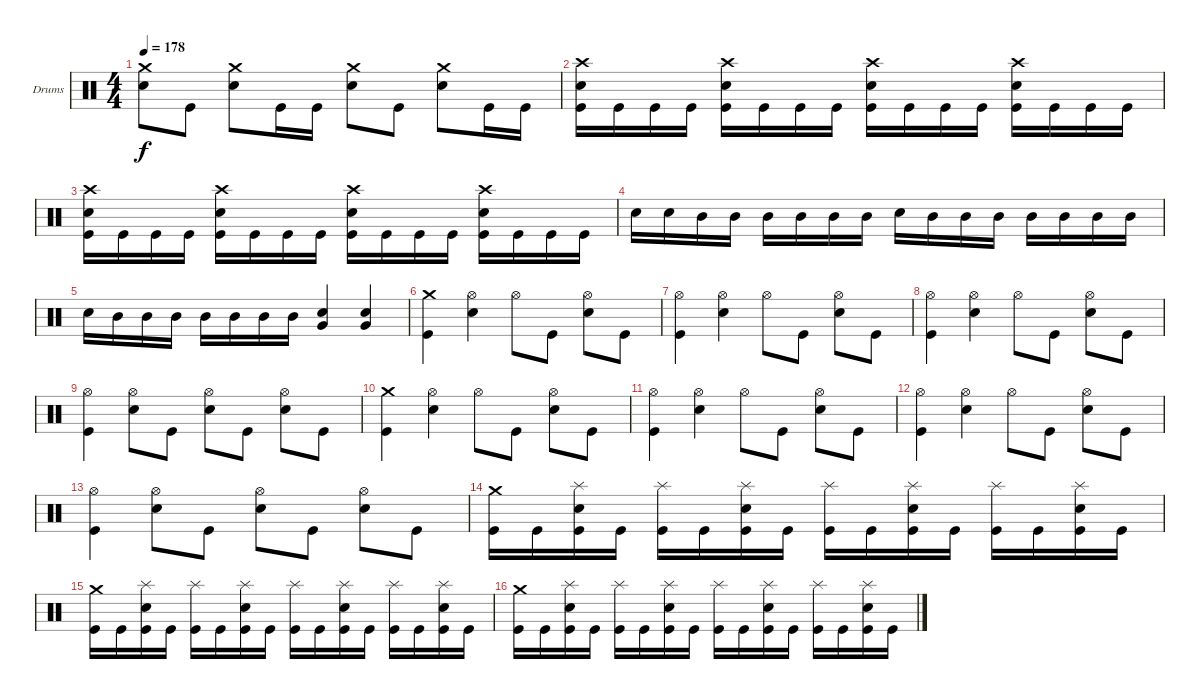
\bracketExtendMode groupsimilarinstruments
\firstSystemTrackNameOrientation horizontal
\otherSystemsTrackNameOrientation horizontal
\track ("Drumkit" "Drums") {instrument percussion}
\staff {score}
\articulation defaults
\ts (4 4)
\tempo 178
\clef neutral
\ks c
("Crash medium (hit)" "Snare (hit) 2").8{dy f} "Kick (hit)".8 ("Crash medium (hit)" "Snare (hit) 2").8 "Kick (hit)".16 "Kick (hit)".16 ("Crash medium (hit)" "Snare (hit) 2").8 "Kick (hit)".8 ("Crash medium (hit)" "Snare (hit) 2").8 "Kick (hit)".16 "Kick (hit)".16 |
("Crash high (hit)" "Snare (hit) 2" "Kick (hit)").16 "Kick (hit)".16 "Kick (hit)".16 "Kick (hit)".16 ("Crash high (hit)" "Snare (hit) 2" "Kick (hit)").16 "Kick (hit)".16 "Kick (hit)".16 "Kick (hit)".16 ("Crash high (hit)" "Snare (hit) 2" "Kick (hit)").16 "Kick (hit)".16 "Kick (hit)".16 "Kick (hit)".16 ("Crash high (hit)" "Snare (hit) 2" "Kick (hit)").16 "Kick (hit)".16 "Kick (hit)".16 "Kick (hit)".16 |
("Crash high (hit)" "Snare (hit) 2" "Kick (hit)").16 "Kick (hit)".16 "Kick (hit)".16 "Kick (hit)".16 ("Crash high (hit)" "Snare (hit) 2" "Kick (hit)").16 "Kick (hit)".16 "Kick (hit)".16 "Kick (hit)".16 ("Crash high (hit)" "Snare (hit) 2" "Kick (hit)").16 "Kick (hit)".16 "Kick (hit)".16 "Kick (hit)".16 ("Crash high (hit)" "Snare (hit) 2" "Kick (hit)").16 "Kick (hit)".16 "Kick (hit)".16 "Kick (hit)".16 |
"Snare (hit) 2".16 "Snare (hit) 2".16 "Mid Tom (hit)".16 "Mid Tom (hit)".16 "Mid Tom (hit)".16 "Mid Tom (hit)".16 "Mid Tom (hit)".16 "Mid Tom (hit)".16 "Snare (hit) 2".16 "Mid Tom (hit)".16 "Mid Tom (hit)".16 "Mid Tom (hit)".16 "Mid Tom (hit)".16 "Mid Tom (hit)".16 "Mid Tom (hit)".16 "Mid Tom (hit)".16 |
"Snare (hit) 2".16 "Mid Tom (hit)".16 "Mid Tom (hit)".16 "Mid Tom (hit)".16 "Mid Tom (hit)".16 "Mid Tom (hit)".16 "Mid Tom (hit)".16 "Mid Tom (hit)".16 ("Snare (hit) 2" "Very Low Tom (hit)").4 ("Snare (hit) 2" "Very Low Tom (hit)").4 |
("Crash medium (hit)" "Kick (hit)").4 ("Hi-Hat (open)" "Snare (hit) 2").4 "Hi-Hat (open)".8 "Kick (hit)".8 ("Hi-Hat (open)" "Snare (hit) 2").8 "Kick (hit)".8 |
("Hi-Hat (open)" "Kick (hit)").4 ("Hi-Hat (open)" "Snare (hit) 2").4 "Hi-Hat (open)".8 "Kick (hit)".8 ("Hi-Hat (open)" "Snare (hit) 2").8 "Kick (hit)".8 |
("Hi-Hat (open)" "Kick (hit)").4 ("Hi-Hat (open)" "Snare (hit) 2").4 "Hi-Hat (open)".8 "Kick (hit)".8 ("Hi-Hat (open)" "Snare (hit) 2").8 "Kick (hit)".8 |
("Hi-Hat (open)" "Kick (hit)").4 ("Hi-Hat (open)" "Snare (hit) 2").8 "Kick (hit)".8 ("Hi-Hat (open)" "Snare (hit) 2").8 "Kick (hit)".8 ("Hi-Hat (open)" "Snare (hit) 2").8 "Kick (hit)".8 |
("Crash medium (hit)" "Kick (hit)").4 ("Hi-Hat (open)" "Snare (hit) 2").4 "Hi-Hat (open)".8 "Kick (hit)".8 ("Hi-Hat (open)" "Snare (hit) 2").8 "Kick (hit)".8 |
("Hi-Hat (open)" "Kick (hit)").4 ("Hi-Hat (open)" "Snare (hit) 2").4 "Hi-Hat (open)".8 "Kick (hit)".8 ("Hi-Hat (open)" "Snare (hit) 2").8 "Kick (hit)".8 |
("Hi-Hat (open)" "Kick (hit)").4 ("Hi-Hat (open)" "Snare (hit) 2").4 "Hi-Hat (open)".8 "Kick (hit)".8 ("Hi-Hat (open)" "Snare (hit) 2").8 "Kick (hit)".8 |
("Hi-Hat (open)" "Kick (hit)").4 ("Hi-Hat (open)" "Snare (hit) 2").8 "Kick (hit)".8 ("Hi-Hat (open)" "Snare (hit) 2").8 "Kick (hit)".8 ("Hi-Hat (open)" "Snare (hit) 2").8 "Kick (hit)".8 |
("Crash medium (hit)" "Kick (hit)").16 "Kick (hit)".16 ("Splash (hit)" "Snare (hit) 2" "Kick (hit)").16 "Kick (hit)".16 ("Splash (hit)" "Kick (hit)").16 "Kick (hit)".16 ("Splash (hit)" "Snare (hit) 2" "Kick (hit)").16 "Kick (hit)".16 ("Splash (hit)" "Kick (hit)").16 "Kick (hit)".16 ("Splash (hit)" "Snare (hit) 2" "Kick (hit)").16 "Kick (hit)".16 ("Splash (hit)" "Kick (hit)").16 "Kick (hit)".16 ("Splash (hit)" "Snare (hit) 2" "Kick (hit)").16 "Kick (hit)".16 |
("Crash medium (hit)" "Kick (hit)").16 "Kick (hit)".16 ("Splash (hit)" "Snare (hit) 2" "Kick (hit)").16 "Kick (hit)".16 ("Splash (hit)" "Kick (hit)").16 "Kick (hit)".16 ("Splash (hit)" "Snare (hit) 2" "Kick (hit)").16 "Kick (hit)".16 ("Splash (hit)" "Kick (hit)").16 "Kick (hit)".16 ("Splash (hit)" "Snare (hit) 2" "Kick (hit)").16 "Kick (hit)".16 ("Splash (hit)" "Kick (hit)").16 "Kick (hit)".16 ("Splash (hit)" "Snare (hit) 2" "Kick (hit)").16 "Kick (hit)".16 |
("Crash medium (hit)" "Kick (hit)").16 "Kick (hit)".16 ("Splash (hit)" "Snare (hit) 2" "Kick (hit)").16 "Kick (hit)".16 ("Splash (hit)" "Kick (hit)").16 "Kick (hit)".16 ("Splash (hit)" "Snare (hit) 2" "Kick (hit)").16 "Kick (hit)".16 ("Splash (hit)" "Kick (hit)").16 "Kick (hit)".16 ("Splash (hit)" "Snare (hit) 2" "Kick (hit)").16 "Kick (hit)".16 ("Splash (hit)" "Kick (hit)").16 "Kick (hit)".16 ("Splash (hit)" "Snare (hit) 2" "Kick (hit)").16 "Kick (hit)".16
